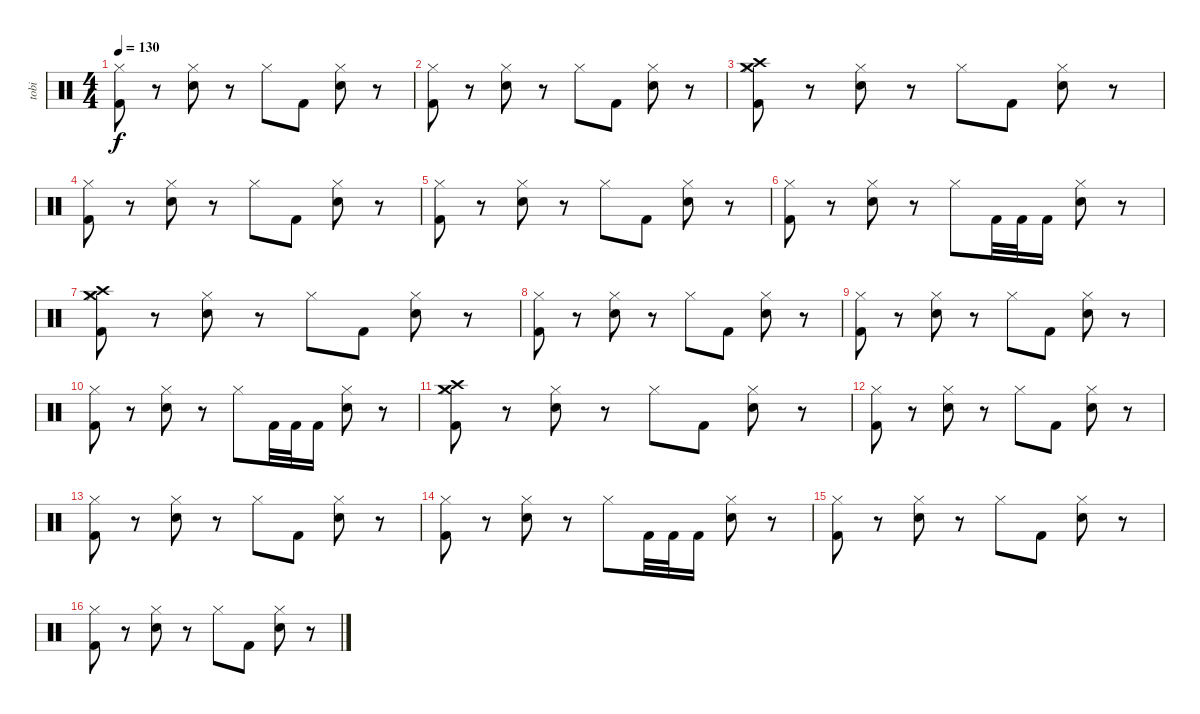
\track ("tobi" "tobi") {instrument percussion}
\staff {score}
\articulation defaults
\ts (4 4)
\tempo 130
\clef neutral
\ks c
("Hi-Hat (closed)" "Kick (hit) 2").8{dy f} r.8 ("Hi-Hat (closed)" "Snare (hit) 2").8 r.8 "Hi-Hat (closed)".8 "Kick (hit) 2".8 ("Hi-Hat (closed)" "Snare (hit) 2").8 r.8 |
("Hi-Hat (closed)" "Kick (hit) 2").8 r.8 ("Hi-Hat (closed)" "Snare (hit) 2").8 r.8 "Hi-Hat (closed)".8 "Kick (hit) 2".8 ("Hi-Hat (closed)" "Snare (hit) 2").8 r.8 |
("Crash medium (hit)" "Hi-Hat (closed)" "Crash high (hit)" "Kick (hit) 2").8 r.8 ("Hi-Hat (closed)" "Snare (hit) 2").8 r.8 "Hi-Hat (closed)".8 "Kick (hit) 2".8 ("Hi-Hat (closed)" "Snare (hit) 2").8 r.8 |
("Hi-Hat (closed)" "Kick (hit) 2").8 r.8 ("Hi-Hat (closed)" "Snare (hit) 2").8 r.8 "Hi-Hat (closed)".8 "Kick (hit) 2".8 ("Hi-Hat (closed)" "Snare (hit) 2").8 r.8 |
("Hi-Hat (closed)" "Kick (hit) 2").8 r.8 ("Hi-Hat (closed)" "Snare (hit) 2").8 r.8 "Hi-Hat (closed)".8 "Kick (hit) 2".8 ("Hi-Hat (closed)" "Snare (hit) 2").8 r.8 |
("Hi-Hat (closed)" "Kick (hit) 2").8 r.8 ("Hi-Hat (closed)" "Snare (hit) 2").8 r.8 "Hi-Hat (closed)".8 "Kick (hit) 2".32 "Kick (hit) 2".32 "Kick (hit) 2".16 ("Hi-Hat (closed)" "Snare (hit) 2").8 r.8 |
("Crash medium (hit)" "Hi-Hat (closed)" "Crash high (hit)" "Kick (hit) 2").8 r.8 ("Hi-Hat (closed)" "Snare (hit) 2").8 r.8 "Hi-Hat (closed)".8 "Kick (hit) 2".8 ("Hi-Hat (closed)" "Snare (hit) 2").8 r.8 |
("Hi-Hat (closed)" "Kick (hit) 2").8 r.8 ("Hi-Hat (closed)" "Snare (hit) 2").8 r.8 "Hi-Hat (closed)".8 "Kick (hit) 2".8 ("Hi-Hat (closed)" "Snare (hit) 2").8 r.8 |
("Hi-Hat (closed)" "Kick (hit) 2").8 r.8 ("Hi-Hat (closed)" "Snare (hit) 2").8 r.8 "Hi-Hat (closed)".8 "Kick (hit) 2".8 ("Hi-Hat (closed)" "Snare (hit) 2").8 r.8 |
("Hi-Hat (closed)" "Kick (hit) 2").8 r.8 ("Hi-Hat (closed)" "Snare (hit) 2").8 r.8 "Hi-Hat (closed)".8 "Kick (hit) 2".32 "Kick (hit) 2".32 "Kick (hit) 2".16 ("Hi-Hat (closed)" "Snare (hit) 2").8 r.8 |
("Crash high (hit)" "Hi-Hat (closed)" "Crash medium (hit)" "Kick (hit) 2").8 r.8 ("Hi-Hat (closed)" "Snare (hit) 2").8 r.8 "Hi-Hat (closed)".8 "Kick (hit) 2".8 ("Hi-Hat (closed)" "Snare (hit) 2").8 r.8 |
("Hi-Hat (closed)" "Kick (hit) 2").8 r.8 ("Hi-Hat (closed)" "Snare (hit) 2").8 r.8 "Hi-Hat (closed)".8 "Kick (hit) 2".8 ("Hi-Hat (closed)" "Snare (hit) 2").8 r.8 |
("Hi-Hat (closed)" "Kick (hit) 2").8 r.8 ("Hi-Hat (closed)" "Snare (hit) 2").8 r.8 "Hi-Hat (closed)".8 "Kick (hit) 2".8 ("Hi-Hat (closed)" "Snare (hit) 2").8 r.8 |
("Hi-Hat (closed)" "Kick (hit) 2").8 r.8 ("Hi-Hat (closed)" "Snare (hit) 2").8 r.8 "Hi-Hat (closed)".8 "Kick (hit) 2".32 "Kick (hit) 2".32 "Kick (hit) 2".16 ("Hi-Hat (closed)" "Snare (hit) 2").8 r.8 |
("Hi-Hat (closed)" "Kick (hit) 2").8 r.8 ("Hi-Hat (closed)" "Snare (hit) 2").8 r.8 "Hi-Hat (closed)".8 "Kick (hit) 2".8 ("Hi-Hat (closed)" "Snare (hit) 2").8 r.8 |
("Hi-Hat (closed)" "Kick (hit) 2").8 r.8 ("Hi-Hat (closed)" "Snare (hit) 2").8 r.8 "Hi-Hat (closed)".8 "Kick (hit) 2".8 ("Hi-Hat (closed)" "Snare (hit) 2").8 r.8
